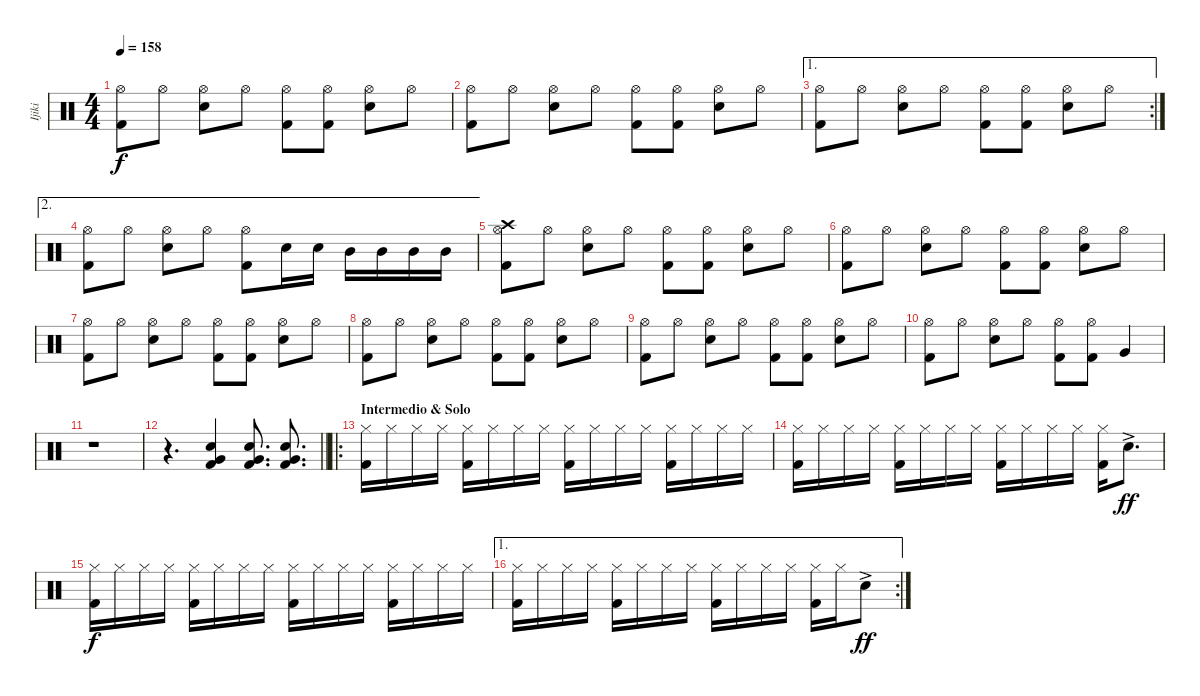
\track ("Ijiki" "Ijiki") {instrument percussion}
\staff {score}
\articulation defaults
\ts (4 4)
\tempo 158
\clef neutral
\ks c
("Hi-Hat (open)" "Kick (hit) 2").8{dy f} "Hi-Hat (open)".8 ("Hi-Hat (open)" "Snare (hit) 2").8 "Hi-Hat (open)".8 ("Hi-Hat (open)" "Kick (hit) 2").8 ("Hi-Hat (open)" "Kick (hit) 2").8 ("Hi-Hat (open)" "Snare (hit) 2").8 "Hi-Hat (open)".8 |
("Hi-Hat (open)" "Kick (hit) 2").8 "Hi-Hat (open)".8 ("Hi-Hat (open)" "Snare (hit) 2").8 "Hi-Hat (open)".8 ("Hi-Hat (open)" "Kick (hit) 2").8 ("Hi-Hat (open)" "Kick (hit) 2").8 ("Hi-Hat (open)" "Snare (hit) 2").8 "Hi-Hat (open)".8 |
\ae 1
\rc 2
("Hi-Hat (open)" "Kick (hit) 2").8 "Hi-Hat (open)".8 ("Hi-Hat (open)" "Snare (hit) 2").8 "Hi-Hat (open)".8 ("Hi-Hat (open)" "Kick (hit) 2").8 ("Hi-Hat (open)" "Kick (hit) 2").8 ("Hi-Hat (open)" "Snare (hit) 2").8 "Hi-Hat (open)".8 |
\ae 2
("Hi-Hat (open)" "Kick (hit) 2").8 "Hi-Hat (open)".8 ("Hi-Hat (open)" "Snare (hit) 2").8 "Hi-Hat (open)".8 ("Hi-Hat (open)" "Kick (hit) 2").8 "Snare (hit) 2".16 "Snare (hit) 2".16 "Mid Tom (hit)".16 "Mid Tom (hit)".16 "Mid Tom (hit)".16 "Mid Tom (hit)".16 |
("Hi-Hat (open)" "Kick (hit) 2" "Crash high (hit)").8 "Hi-Hat (open)".8 ("Hi-Hat (open)" "Snare (hit) 2").8 "Hi-Hat (open)".8 ("Hi-Hat (open)" "Kick (hit) 2").8 ("Hi-Hat (open)" "Kick (hit) 2").8 ("Hi-Hat (open)" "Snare (hit) 2").8 "Hi-Hat (open)".8 |
("Hi-Hat (open)" "Kick (hit) 2").8 "Hi-Hat (open)".8 ("Hi-Hat (open)" "Snare (hit) 2").8 "Hi-Hat (open)".8 ("Hi-Hat (open)" "Kick (hit) 2").8 ("Hi-Hat (open)" "Kick (hit) 2").8 ("Hi-Hat (open)" "Snare (hit) 2").8 "Hi-Hat (open)".8 |
("Hi-Hat (open)" "Kick (hit) 2").8 "Hi-Hat (open)".8 ("Hi-Hat (open)" "Snare (hit) 2").8 "Hi-Hat (open)".8 ("Hi-Hat (open)" "Kick (hit) 2").8 ("Hi-Hat (open)" "Kick (hit) 2").8 ("Hi-Hat (open)" "Snare (hit) 2").8 "Hi-Hat (open)".8 |
("Hi-Hat (open)" "Kick (hit) 2").8 "Hi-Hat (open)".8 ("Hi-Hat (open)" "Snare (hit) 2").8 "Hi-Hat (open)".8 ("Hi-Hat (open)" "Kick (hit) 2").8 ("Hi-Hat (open)" "Kick (hit) 2").8 ("Hi-Hat (open)" "Snare (hit) 2").8 "Hi-Hat (open)".8 |
("Hi-Hat (open)" "Kick (hit) 2").8 "Hi-Hat (open)".8 ("Hi-Hat (open)" "Snare (hit) 2").8 "Hi-Hat (open)".8 ("Hi-Hat (open)" "Kick (hit) 2").8 ("Hi-Hat (open)" "Kick (hit) 2").8 ("Hi-Hat (open)" "Snare (hit) 2").8 "Hi-Hat (open)".8 |
("Hi-Hat (open)" "Kick (hit) 2").8 "Hi-Hat (open)".8 ("Hi-Hat (open)" "Snare (hit) 2").8 "Hi-Hat (open)".8 ("Hi-Hat (open)" "Kick (hit) 2").8 ("Hi-Hat (open)" "Kick (hit) 2").8 "Very Low Tom (hit)".4 |
r.1 |
\barLineRight lightlight
r.4{d} ("Very Low Tom (hit)" "Kick (hit) 2" "Snare (hit) 2").4 ("Very Low Tom (hit)" "Kick (hit) 2" "Snare (hit) 2").8{d} ("Very Low Tom (hit)" "Kick (hit) 2" "Snare (hit) 2").8{d} |
\ro
\section ("" "Intermedio & Solo")
("Hi-Hat (closed)" "Kick (hit) 2").16 "Hi-Hat (closed)".16 "Hi-Hat (closed)".16 "Hi-Hat (closed)".16 ("Hi-Hat (closed)" "Kick (hit) 2").16 "Hi-Hat (closed)".16 "Hi-Hat (closed)".16 "Hi-Hat (closed)".16 ("Hi-Hat (closed)" "Kick (hit) 2").16 "Hi-Hat (closed)".16 "Hi-Hat (closed)".16 "Hi-Hat (closed)".16 ("Hi-Hat (closed)" "Kick (hit) 2").16 "Hi-Hat (closed)".16 "Hi-Hat (closed)".16 "Hi-Hat (closed)".16 |
("Hi-Hat (closed)" "Kick (hit) 2").16 "Hi-Hat (closed)".16 "Hi-Hat (closed)".16 "Hi-Hat (closed)".16 ("Hi-Hat (closed)" "Kick (hit) 2").16 "Hi-Hat (closed)".16 "Hi-Hat (closed)".16 "Hi-Hat (closed)".16 ("Hi-Hat (closed)" "Kick (hit) 2").16 "Hi-Hat (closed)".16 "Hi-Hat (closed)".16 "Hi-Hat (closed)".16 ("Hi-Hat (closed)" "Kick (hit) 2").16 "Snare (hit) 2"{ac}.8{d dy ff} |
("Hi-Hat (closed)" "Kick (hit) 2").16{dy f} "Hi-Hat (closed)".16 "Hi-Hat (closed)".16 "Hi-Hat (closed)".16 ("Hi-Hat (closed)" "Kick (hit) 2").16 "Hi-Hat (closed)".16 "Hi-Hat (closed)".16 "Hi-Hat (closed)".16 ("Hi-Hat (closed)" "Kick (hit) 2").16 "Hi-Hat (closed)".16 "Hi-Hat (closed)".16 "Hi-Hat (closed)".16 ("Hi-Hat (closed)" "Kick (hit) 2").16 "Hi-Hat (closed)".16 "Hi-Hat (closed)".16 "Hi-Hat (closed)".16 |
\ae 1
\rc 2
("Hi-Hat (closed)" "Kick (hit) 2").16 "Hi-Hat (closed)".16 "Hi-Hat (closed)".16 "Hi-Hat (closed)".16 ("Hi-Hat (closed)" "Kick (hit) 2").16 "Hi-Hat (closed)".16 "Hi-Hat (closed)".16 "Hi-Hat (closed)".16 ("Hi-Hat (closed)" "Kick (hit) 2").16 "Hi-Hat (closed)".16 "Hi-Hat (closed)".16 "Hi-Hat (closed)".16 ("Hi-Hat (closed)" "Kick (hit) 2").16 "Hi-Hat (closed)".16 "Snare (hit) 2"{ac}.8{dy ff}
